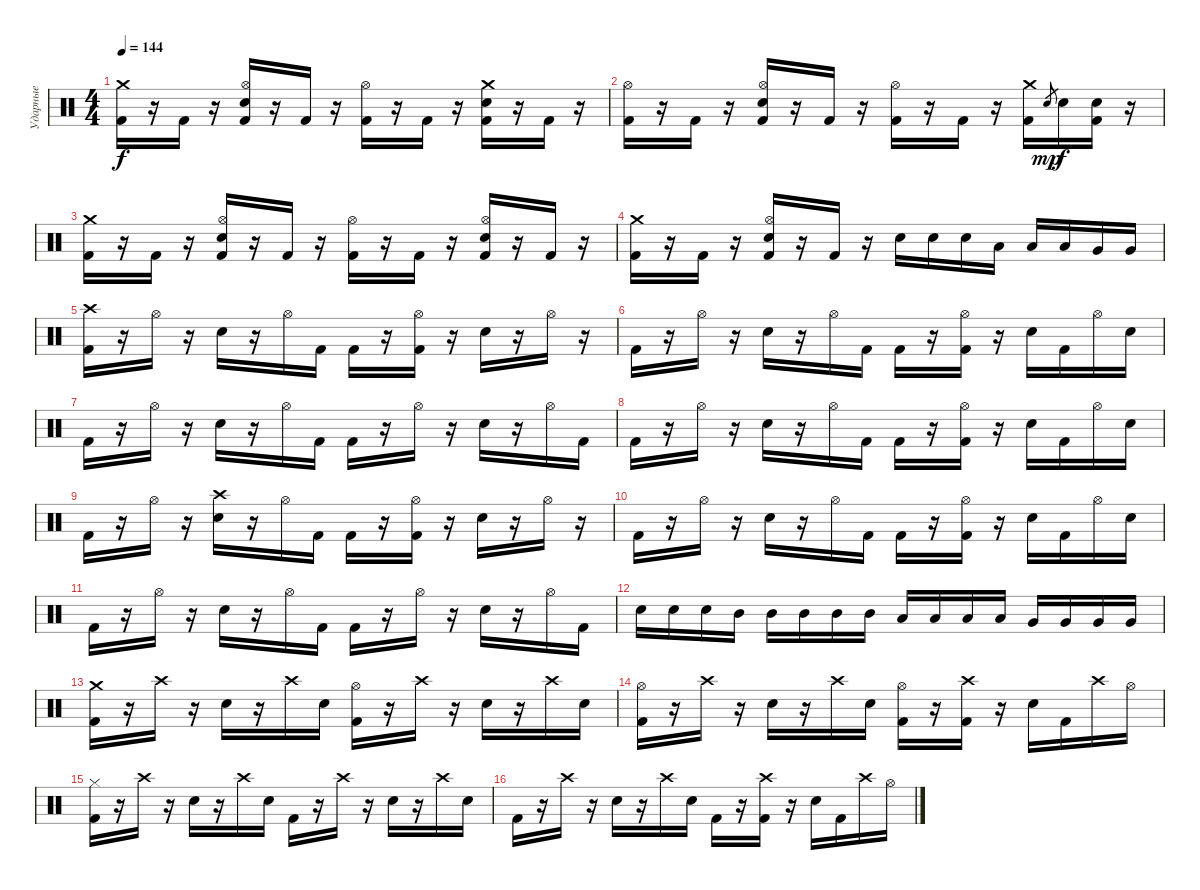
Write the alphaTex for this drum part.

\track ("Ударные" "Ударные") {instrument percussion}
\staff {score}
\articulation defaults
\ts (4 4)
\tempo 144
\clef neutral
\ks c
("Crash medium (hit)" "Kick (hit) 2").16{dy f} r.16 "Kick (hit) 2".16 r.16 ("Hi-Hat (open)" "Electric Snare (hit)" "Kick (hit) 2").16 r.16 "Kick (hit) 2".16 r.16 ("Hi-Hat (open)" "Kick (hit) 2").16 r.16 "Kick (hit) 2".16 r.16 ("Crash medium (hit)" "Electric Snare (hit)" "Kick (hit) 2").16 r.16 "Kick (hit) 2".16 r.16 |
("Hi-Hat (open)" "Kick (hit) 2").16 r.16 "Kick (hit) 2".16 r.16 ("Hi-Hat (open)" "Electric Snare (hit)" "Kick (hit) 2").16 r.16 "Kick (hit) 2".16 r.16 ("Hi-Hat (open)" "Kick (hit) 2").16 r.16 "Kick (hit) 2".16 r.16 ("Crash medium (hit)" "Kick (hit) 2").16 "Electric Snare (hit)".8{gr dy mp} "Electric Snare (hit)".16{dy f} ("Electric Snare (hit)" "Kick (hit) 2").16 r.16 |
("Crash medium (hit)" "Kick (hit) 2").16 r.16 "Kick (hit) 2".16 r.16 ("Hi-Hat (open)" "Electric Snare (hit)" "Kick (hit) 2").16 r.16 "Kick (hit) 2".16 r.16 ("Hi-Hat (open)" "Kick (hit) 2").16 r.16 "Kick (hit) 2".16 r.16 ("Hi-Hat (open)" "Electric Snare (hit)" "Kick (hit) 2").16 r.16 "Kick (hit) 2".16 r.16 |
("Crash medium (hit)" "Kick (hit) 2").16 r.16 "Kick (hit) 2".16 r.16 ("Hi-Hat (open)" "Electric Snare (hit)" "Kick (hit) 2").16 r.16 "Kick (hit) 2".16 r.16 "Electric Snare (hit)".16 "Electric Snare (hit)".16 "Electric Snare (hit)".16 "Low Tom (hit)".16 "Low Tom (hit)".16 "Low Tom (hit)".16 "Very Low Tom (hit)".16 "Very Low Tom (hit)".16 |
("Crash high (hit)" "Kick (hit) 2").16 r.16 "Hi-Hat (open)".16 r.16 "Electric Snare (hit)".16 r.16 "Hi-Hat (open)".16 "Kick (hit) 2".16 "Kick (hit) 2".16 r.16 ("Hi-Hat (open)" "Kick (hit) 2").16 r.16 "Electric Snare (hit)".16 r.16 "Hi-Hat (open)".16 r.16 |
"Kick (hit) 2".16 r.16 "Hi-Hat (open)".16 r.16 "Electric Snare (hit)".16 r.16 "Hi-Hat (open)".16 "Kick (hit) 2".16 "Kick (hit) 2".16 r.16 ("Hi-Hat (open)" "Kick (hit) 2").16 r.16 "Electric Snare (hit)".16 "Kick (hit) 2".16 "Hi-Hat (open)".16 "Electric Snare (hit)".16 |
"Kick (hit) 2".16 r.16 "Hi-Hat (open)".16 r.16 "Electric Snare (hit)".16 r.16 "Hi-Hat (open)".16 "Kick (hit) 2".16 "Kick (hit) 2".16 r.16 "Hi-Hat (open)".16 r.16 "Electric Snare (hit)".16 r.16 "Hi-Hat (open)".16 "Kick (hit) 2".16 |
"Kick (hit) 2".16 r.16 "Hi-Hat (open)".16 r.16 "Electric Snare (hit)".16 r.16 "Hi-Hat (open)".16 "Kick (hit) 2".16 "Kick (hit) 2".16 r.16 ("Hi-Hat (open)" "Kick (hit) 2").16 r.16 "Electric Snare (hit)".16 "Kick (hit) 2".16 "Hi-Hat (open)".16 "Electric Snare (hit)".16 |
"Kick (hit) 2".16 r.16 "Hi-Hat (open)".16 r.16 ("Crash high (hit)" "Electric Snare (hit)").16 r.16 "Hi-Hat (open)".16 "Kick (hit) 2".16 "Kick (hit) 2".16 r.16 ("Hi-Hat (open)" "Kick (hit) 2").16 r.16 "Electric Snare (hit)".16 r.16 "Hi-Hat (open)".16 r.16 |
"Kick (hit) 2".16 r.16 "Hi-Hat (open)".16 r.16 "Electric Snare (hit)".16 r.16 "Hi-Hat (open)".16 "Kick (hit) 2".16 "Kick (hit) 2".16 r.16 ("Hi-Hat (open)" "Kick (hit) 2").16 r.16 "Electric Snare (hit)".16 "Kick (hit) 2".16 "Hi-Hat (open)".16 "Electric Snare (hit)".16 |
"Kick (hit) 2".16 r.16 "Hi-Hat (open)".16 r.16 "Electric Snare (hit)".16 r.16 "Hi-Hat (open)".16 "Kick (hit) 2".16 "Kick (hit) 2".16 r.16 "Hi-Hat (open)".16 r.16 "Electric Snare (hit)".16 r.16 "Hi-Hat (open)".16 "Kick (hit) 2".16 |
"Electric Snare (hit)".16 "Electric Snare (hit)".16 "Electric Snare (hit)".16 "Mid Tom (hit)".16 "Mid Tom (hit)".16 "Mid Tom (hit)".16 "Mid Tom (hit)".16 "Mid Tom (hit)".16 "Low Tom (hit)".16 "Low Tom (hit)".16 "Low Tom (hit)".16 "Low Tom (hit)".16 "Very Low Tom (hit)".16 "Very Low Tom (hit)".16 "Very Low Tom (hit)".16 "Very Low Tom (hit)".16 |
("Crash medium (hit)" "Kick (hit) 2").16 r.16 "Crash high (hit)".16 r.16 "Electric Snare (hit)".16 r.16 "Crash high (hit)".16 "Electric Snare (hit)".16 ("Hi-Hat (open)" "Kick (hit) 2").16 r.16 "Crash high (hit)".16 r.16 "Electric Snare (hit)".16 r.16 "Crash high (hit)".16 "Electric Snare (hit)".16 |
("Hi-Hat (open)" "Kick (hit) 2").16 r.16 "Crash high (hit)".16 r.16 "Electric Snare (hit)".16 r.16 "Crash high (hit)".16 "Electric Snare (hit)".16 ("Hi-Hat (open)" "Kick (hit) 2").16 r.16 ("Crash high (hit)" "Kick (hit) 2").16 r.16 "Electric Snare (hit)".16 "Kick (hit) 2".16 "Crash high (hit)".16 "Hi-Hat (open)".16 |
("Hi-Hat (closed)" "Kick (hit) 2").16 r.16 "Crash high (hit)".16 r.16 "Electric Snare (hit)".16 r.16 "Crash high (hit)".16 "Electric Snare (hit)".16 "Kick (hit) 2".16 r.16 "Crash high (hit)".16 r.16 "Electric Snare (hit)".16 r.16 "Crash high (hit)".16 "Electric Snare (hit)".16 |
"Kick (hit) 2".16 r.16 "Crash high (hit)".16 r.16 "Electric Snare (hit)".16 r.16 "Crash high (hit)".16 "Electric Snare (hit)".16 "Kick (hit) 2".16 r.16 ("Crash high (hit)" "Kick (hit) 2").16 r.16 "Electric Snare (hit)".16 "Kick (hit) 2".16 "Crash high (hit)".16 "Hi-Hat (open)".16
